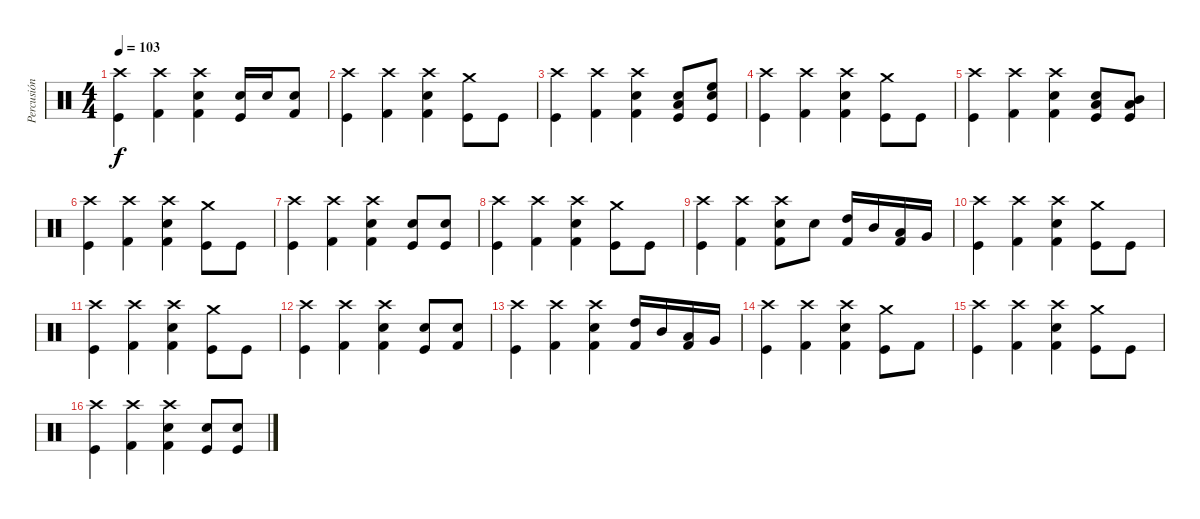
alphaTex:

\track ("Percusión" "Percusión") {instrument percussion}
\staff {score}
\articulation defaults
\ts (4 4)
\tempo 103
\clef neutral
\ks c
("Crash high (hit)" "Kick (hit)").4{dy f} ("Crash high (hit)" "Kick (hit) 2").4 ("Crash high (hit)" "Snare (hit) 2" "Kick (hit) 2").4 ("Kick (hit)" "Snare (hit) 2").16 "Snare (hit) 2".16 ("Snare (hit) 2" "Kick (hit) 2").8 |
("Crash high (hit)" "Kick (hit)").4 ("Crash high (hit)" "Kick (hit) 2").4 ("Crash high (hit)" "Snare (hit) 2" "Kick (hit) 2").4 ("Crash medium (hit)" "Kick (hit)").8 "Kick (hit)".8 |
("Crash high (hit)" "Kick (hit)").4 ("Crash high (hit)" "Kick (hit) 2").4 ("Crash high (hit)" "Snare (hit) 2" "Kick (hit) 2").4 ("Kick (hit)" "Snare (hit) 2" "Low Floor Tom (hit)").8 ("Kick (hit)" "Snare (hit) 2" "High Floor Tom (hit)").8 |
("Crash high (hit)" "Kick (hit)").4 ("Crash high (hit)" "Kick (hit) 2").4 ("Crash high (hit)" "Snare (hit) 2" "Kick (hit) 2").4 ("Crash medium (hit)" "Kick (hit)").8 "Kick (hit)".8 |
("Crash high (hit)" "Kick (hit)").4 ("Crash high (hit)" "Kick (hit) 2").4 ("Crash high (hit)" "Snare (hit) 2" "Kick (hit) 2").4 ("Kick (hit)" "Snare (hit) 2" "Low Floor Tom (hit)").8 ("Kick (hit)" "Mid Tom (hit)" "Low Tom (hit)").8 |
("Crash high (hit)" "Kick (hit)").4 ("Crash high (hit)" "Kick (hit) 2").4 ("Crash high (hit)" "Snare (hit) 2" "Kick (hit) 2").4 ("Crash medium (hit)" "Kick (hit)").8 "Kick (hit)".8 |
("Crash high (hit)" "Kick (hit)").4 ("Crash high (hit)" "Kick (hit) 2").4 ("Crash high (hit)" "Snare (hit) 2" "Kick (hit) 2").4 ("Kick (hit)" "Snare (hit) 2").8 ("Kick (hit)" "Snare (hit) 2").8 |
("Crash high (hit)" "Kick (hit)").4 ("Crash high (hit)" "Kick (hit) 2").4 ("Crash high (hit)" "Snare (hit) 2" "Kick (hit) 2").4 ("Crash medium (hit)" "Kick (hit)").8 "Kick (hit)".8 |
("Crash high (hit)" "Kick (hit)").4 ("Crash high (hit)" "Kick (hit) 2").4 ("Crash high (hit)" "Snare (hit) 2" "Kick (hit) 2").8 "Snare (hit) 2".8 ("High Tom (hit)" "Kick (hit) 2").16 "Mid Tom (hit)".16 ("Low Tom (hit)" "Kick (hit) 2").16 "Very Low Tom (hit)".16 |
("Crash high (hit)" "Kick (hit)").4 ("Crash high (hit)" "Kick (hit) 2").4 ("Crash high (hit)" "Snare (hit) 2" "Kick (hit) 2").4 ("Crash medium (hit)" "Kick (hit)").8 "Kick (hit)".8 |
("Crash high (hit)" "Kick (hit)").4 ("Crash high (hit)" "Kick (hit) 2").4 ("Crash high (hit)" "Snare (hit) 2" "Kick (hit) 2").4 ("Crash medium (hit)" "Kick (hit)").8 "Kick (hit)".8 |
("Crash high (hit)" "Kick (hit)").4 ("Crash high (hit)" "Kick (hit) 2").4 ("Crash high (hit)" "Snare (hit) 2" "Kick (hit) 2").4 ("Kick (hit)" "Snare (hit) 2").8 ("Snare (hit) 2" "Kick (hit) 2").8 |
("Crash high (hit)" "Kick (hit)").4 ("Crash high (hit)" "Kick (hit) 2").4 ("Crash high (hit)" "Snare (hit) 2" "Kick (hit) 2").4 ("High Tom (hit)" "Kick (hit) 2").16 "Mid Tom (hit)".16 ("Low Tom (hit)" "Kick (hit) 2").16 "Very Low Tom (hit)".16 |
("Crash high (hit)" "Kick (hit)").4 ("Crash high (hit)" "Kick (hit) 2").4 ("Crash high (hit)" "Snare (hit) 2" "Kick (hit) 2").4 ("Crash medium (hit)" "Kick (hit)").8 "Kick (hit) 2".8 |
("Crash high (hit)" "Kick (hit)").4 ("Crash high (hit)" "Kick (hit) 2").4 ("Crash high (hit)" "Snare (hit) 2" "Kick (hit) 2").4 ("Crash medium (hit)" "Kick (hit)").8 "Kick (hit)".8 |
("Crash high (hit)" "Kick (hit)").4 ("Crash high (hit)" "Kick (hit) 2").4 ("Crash high (hit)" "Snare (hit) 2" "Kick (hit) 2").4 ("Snare (hit) 2" "Kick (hit)").8 ("Kick (hit)" "Snare (hit) 2").8
